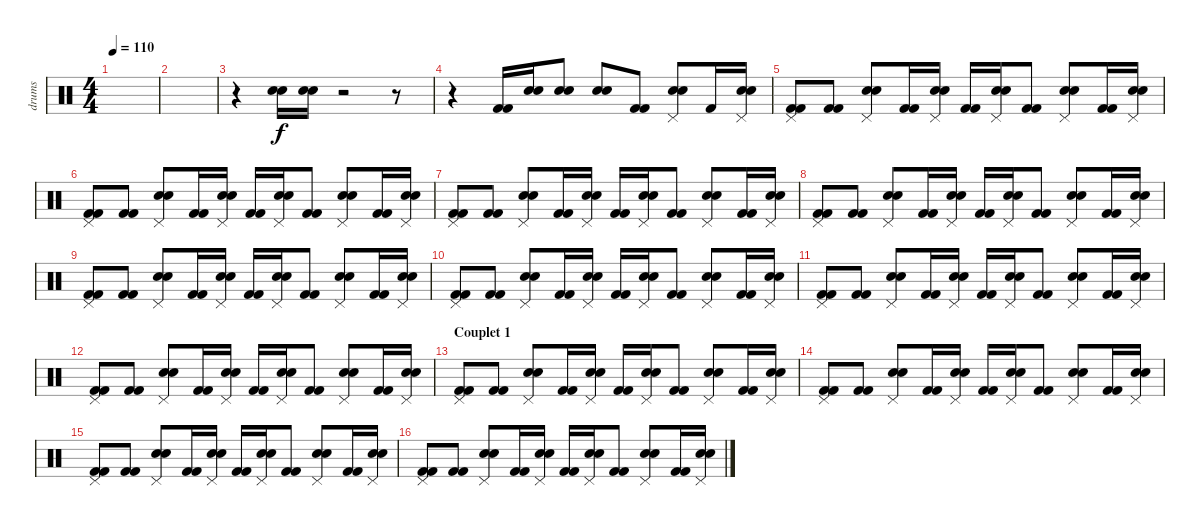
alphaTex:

\track ("drums" "drums") {instrument percussion}
\staff {score}
\articulation defaults
\ts (4 4)
\tempo 110
\clef neutral
\ks c
|
|
r.4 ("Snare (hit) 2" "Snare (hit) 2").16 ("Snare (hit) 2" "Snare (hit) 2").16 r.2 r.8 |
r.4 ("Kick (hit) 2" "Kick (hit) 2").16 ("Snare (hit) 2" "Snare (hit) 2").16 ("Snare (hit) 2" "Snare (hit) 2").8 ("Snare (hit) 2" "Snare (hit) 2").8 ("Kick (hit) 2" "Kick (hit) 2").8 ("Snare (hit) 2" "Snare (hit) 2" "Pedal Hi-Hat (hit)").8 "Kick (hit) 2".16 ("Snare (hit) 2" "Snare (hit) 2" "Pedal Hi-Hat (hit)").16 |
("Pedal Hi-Hat (hit)" "Kick (hit) 2" "Kick (hit) 2").8 ("Kick (hit) 2" "Kick (hit) 2").8 ("Snare (hit) 2" "Snare (hit) 2" "Pedal Hi-Hat (hit)").8 ("Kick (hit) 2" "Kick (hit) 2").16 ("Snare (hit) 2" "Snare (hit) 2" "Pedal Hi-Hat (hit)").16 ("Kick (hit) 2" "Kick (hit) 2").16 ("Snare (hit) 2" "Snare (hit) 2" "Pedal Hi-Hat (hit)").16 ("Kick (hit) 2" "Kick (hit) 2").8 ("Snare (hit) 2" "Snare (hit) 2" "Pedal Hi-Hat (hit)").8 ("Kick (hit) 2" "Kick (hit) 2").16 ("Snare (hit) 2" "Snare (hit) 2" "Pedal Hi-Hat (hit)").16 |
("Pedal Hi-Hat (hit)" "Kick (hit) 2" "Kick (hit) 2").8 ("Kick (hit) 2" "Kick (hit) 2").8 ("Snare (hit) 2" "Snare (hit) 2" "Pedal Hi-Hat (hit)").8 ("Kick (hit) 2" "Kick (hit) 2").16 ("Snare (hit) 2" "Snare (hit) 2" "Pedal Hi-Hat (hit)").16 ("Kick (hit) 2" "Kick (hit) 2").16 ("Snare (hit) 2" "Snare (hit) 2" "Pedal Hi-Hat (hit)").16 ("Kick (hit) 2" "Kick (hit) 2").8 ("Snare (hit) 2" "Snare (hit) 2" "Pedal Hi-Hat (hit)").8 ("Kick (hit) 2" "Kick (hit) 2").16 ("Snare (hit) 2" "Snare (hit) 2" "Pedal Hi-Hat (hit)").16 |
("Pedal Hi-Hat (hit)" "Kick (hit) 2" "Kick (hit) 2").8 ("Kick (hit) 2" "Kick (hit) 2").8 ("Snare (hit) 2" "Snare (hit) 2" "Pedal Hi-Hat (hit)").8 ("Kick (hit) 2" "Kick (hit) 2").16 ("Snare (hit) 2" "Snare (hit) 2" "Pedal Hi-Hat (hit)").16 ("Kick (hit) 2" "Kick (hit) 2").16 ("Snare (hit) 2" "Snare (hit) 2" "Pedal Hi-Hat (hit)").16 ("Kick (hit) 2" "Kick (hit) 2").8 ("Snare (hit) 2" "Snare (hit) 2" "Pedal Hi-Hat (hit)").8 ("Kick (hit) 2" "Kick (hit) 2").16 ("Snare (hit) 2" "Snare (hit) 2" "Pedal Hi-Hat (hit)").16 |
("Pedal Hi-Hat (hit)" "Kick (hit) 2" "Kick (hit) 2").8 ("Kick (hit) 2" "Kick (hit) 2").8 ("Snare (hit) 2" "Snare (hit) 2" "Pedal Hi-Hat (hit)").8 ("Kick (hit) 2" "Kick (hit) 2").16 ("Snare (hit) 2" "Snare (hit) 2" "Pedal Hi-Hat (hit)").16 ("Kick (hit) 2" "Kick (hit) 2").16 ("Snare (hit) 2" "Snare (hit) 2" "Pedal Hi-Hat (hit)").16 ("Kick (hit) 2" "Kick (hit) 2").8 ("Snare (hit) 2" "Snare (hit) 2" "Pedal Hi-Hat (hit)").8 ("Kick (hit) 2" "Kick (hit) 2").16 ("Snare (hit) 2" "Snare (hit) 2" "Pedal Hi-Hat (hit)").16 |
("Pedal Hi-Hat (hit)" "Kick (hit) 2" "Kick (hit) 2").8 ("Kick (hit) 2" "Kick (hit) 2").8 ("Snare (hit) 2" "Snare (hit) 2" "Pedal Hi-Hat (hit)").8 ("Kick (hit) 2" "Kick (hit) 2").16 ("Snare (hit) 2" "Snare (hit) 2" "Pedal Hi-Hat (hit)").16 ("Kick (hit) 2" "Kick (hit) 2").16 ("Snare (hit) 2" "Snare (hit) 2" "Pedal Hi-Hat (hit)").16 ("Kick (hit) 2" "Kick (hit) 2").8 ("Snare (hit) 2" "Snare (hit) 2" "Pedal Hi-Hat (hit)").8 ("Kick (hit) 2" "Kick (hit) 2").16 ("Snare (hit) 2" "Snare (hit) 2" "Pedal Hi-Hat (hit)").16 |
("Pedal Hi-Hat (hit)" "Kick (hit) 2" "Kick (hit) 2").8 ("Kick (hit) 2" "Kick (hit) 2").8 ("Snare (hit) 2" "Snare (hit) 2" "Pedal Hi-Hat (hit)").8 ("Kick (hit) 2" "Kick (hit) 2").16 ("Snare (hit) 2" "Snare (hit) 2" "Pedal Hi-Hat (hit)").16 ("Kick (hit) 2" "Kick (hit) 2").16 ("Snare (hit) 2" "Snare (hit) 2" "Pedal Hi-Hat (hit)").16 ("Kick (hit) 2" "Kick (hit) 2").8 ("Snare (hit) 2" "Snare (hit) 2" "Pedal Hi-Hat (hit)").8 ("Kick (hit) 2" "Kick (hit) 2").16 ("Snare (hit) 2" "Snare (hit) 2" "Pedal Hi-Hat (hit)").16 |
("Pedal Hi-Hat (hit)" "Kick (hit) 2" "Kick (hit) 2").8 ("Kick (hit) 2" "Kick (hit) 2").8 ("Snare (hit) 2" "Snare (hit) 2" "Pedal Hi-Hat (hit)").8 ("Kick (hit) 2" "Kick (hit) 2").16 ("Snare (hit) 2" "Snare (hit) 2" "Pedal Hi-Hat (hit)").16 ("Kick (hit) 2" "Kick (hit) 2").16 ("Snare (hit) 2" "Snare (hit) 2" "Pedal Hi-Hat (hit)").16 ("Kick (hit) 2" "Kick (hit) 2").8 ("Snare (hit) 2" "Snare (hit) 2" "Pedal Hi-Hat (hit)").8 ("Kick (hit) 2" "Kick (hit) 2").16 ("Snare (hit) 2" "Snare (hit) 2" "Pedal Hi-Hat (hit)").16 |
("Pedal Hi-Hat (hit)" "Kick (hit) 2" "Kick (hit) 2").8 ("Kick (hit) 2" "Kick (hit) 2").8 ("Snare (hit) 2" "Snare (hit) 2" "Pedal Hi-Hat (hit)").8 ("Kick (hit) 2" "Kick (hit) 2").16 ("Snare (hit) 2" "Snare (hit) 2" "Pedal Hi-Hat (hit)").16 ("Kick (hit) 2" "Kick (hit) 2").16 ("Snare (hit) 2" "Snare (hit) 2" "Pedal Hi-Hat (hit)").16 ("Kick (hit) 2" "Kick (hit) 2").8 ("Snare (hit) 2" "Snare (hit) 2" "Pedal Hi-Hat (hit)").8 ("Kick (hit) 2" "Kick (hit) 2").16 ("Snare (hit) 2" "Snare (hit) 2" "Pedal Hi-Hat (hit)").16 |
\section ("" "Couplet 1")
("Pedal Hi-Hat (hit)" "Kick (hit) 2" "Kick (hit) 2").8 ("Kick (hit) 2" "Kick (hit) 2").8 ("Snare (hit) 2" "Snare (hit) 2" "Pedal Hi-Hat (hit)").8 ("Kick (hit) 2" "Kick (hit) 2").16 ("Snare (hit) 2" "Snare (hit) 2" "Pedal Hi-Hat (hit)").16 ("Kick (hit) 2" "Kick (hit) 2").16 ("Snare (hit) 2" "Snare (hit) 2" "Pedal Hi-Hat (hit)").16 ("Kick (hit) 2" "Kick (hit) 2").8 ("Snare (hit) 2" "Snare (hit) 2" "Pedal Hi-Hat (hit)").8 ("Kick (hit) 2" "Kick (hit) 2").16 ("Snare (hit) 2" "Snare (hit) 2" "Pedal Hi-Hat (hit)").16 |
("Pedal Hi-Hat (hit)" "Kick (hit) 2" "Kick (hit) 2").8 ("Kick (hit) 2" "Kick (hit) 2").8 ("Snare (hit) 2" "Snare (hit) 2" "Pedal Hi-Hat (hit)").8 ("Kick (hit) 2" "Kick (hit) 2").16 ("Snare (hit) 2" "Snare (hit) 2" "Pedal Hi-Hat (hit)").16 ("Kick (hit) 2" "Kick (hit) 2").16 ("Snare (hit) 2" "Snare (hit) 2" "Pedal Hi-Hat (hit)").16 ("Kick (hit) 2" "Kick (hit) 2").8 ("Snare (hit) 2" "Snare (hit) 2" "Pedal Hi-Hat (hit)").8 ("Kick (hit) 2" "Kick (hit) 2").16 ("Snare (hit) 2" "Snare (hit) 2" "Pedal Hi-Hat (hit)").16 |
("Pedal Hi-Hat (hit)" "Kick (hit) 2" "Kick (hit) 2").8 ("Kick (hit) 2" "Kick (hit) 2").8 ("Snare (hit) 2" "Snare (hit) 2" "Pedal Hi-Hat (hit)").8 ("Kick (hit) 2" "Kick (hit) 2").16 ("Snare (hit) 2" "Snare (hit) 2" "Pedal Hi-Hat (hit)").16 ("Kick (hit) 2" "Kick (hit) 2").16 ("Snare (hit) 2" "Snare (hit) 2" "Pedal Hi-Hat (hit)").16 ("Kick (hit) 2" "Kick (hit) 2").8 ("Snare (hit) 2" "Snare (hit) 2" "Pedal Hi-Hat (hit)").8 ("Kick (hit) 2" "Kick (hit) 2").16 ("Snare (hit) 2" "Snare (hit) 2" "Pedal Hi-Hat (hit)").16 |
("Pedal Hi-Hat (hit)" "Kick (hit) 2" "Kick (hit) 2").8 ("Kick (hit) 2" "Kick (hit) 2").8 ("Snare (hit) 2" "Snare (hit) 2" "Pedal Hi-Hat (hit)").8 ("Kick (hit) 2" "Kick (hit) 2").16 ("Snare (hit) 2" "Snare (hit) 2" "Pedal Hi-Hat (hit)").16 ("Kick (hit) 2" "Kick (hit) 2").16 ("Snare (hit) 2" "Snare (hit) 2" "Pedal Hi-Hat (hit)").16 ("Kick (hit) 2" "Kick (hit) 2").8 ("Snare (hit) 2" "Snare (hit) 2" "Pedal Hi-Hat (hit)").8 ("Kick (hit) 2" "Kick (hit) 2").16 ("Snare (hit) 2" "Snare (hit) 2" "Pedal Hi-Hat (hit)").16
